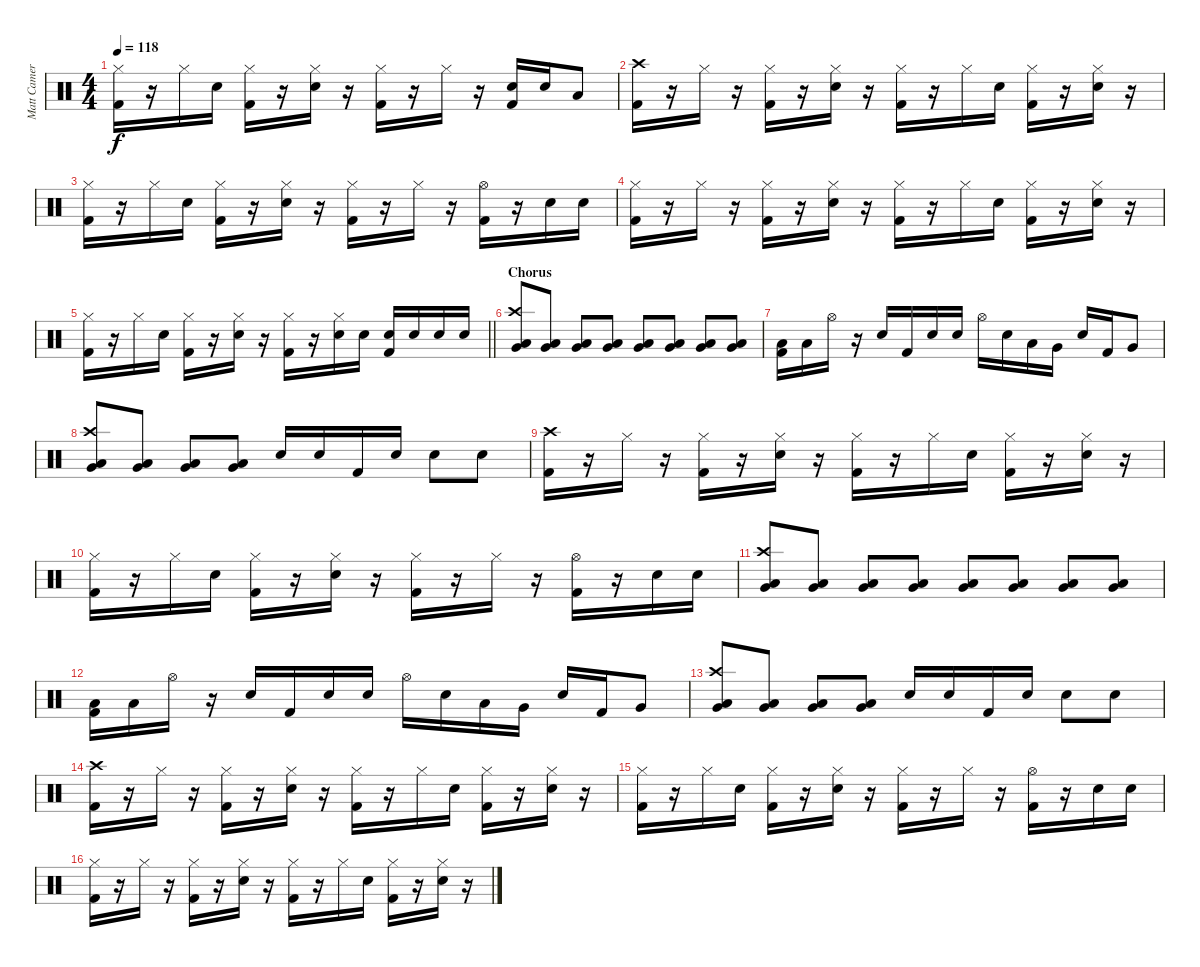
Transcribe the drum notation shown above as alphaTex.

\track ("Matt Cameron" "Matt Camer") {instrument percussion}
\staff {score}
\articulation defaults
\ts (4 4)
\tempo 118
\clef neutral
\ks c
("Hi-Hat (closed)" "Kick (hit) 2").16{dy f} r.16 "Hi-Hat (closed)".16 "Snare (hit) 2".16 ("Hi-Hat (closed)" "Kick (hit) 2").16 r.16 ("Hi-Hat (closed)" "Snare (hit) 2").16 r.16 ("Hi-Hat (closed)" "Kick (hit) 2").16 r.16 "Hi-Hat (closed)".16 r.16 ("Snare (hit) 2" "Kick (hit) 2").16 "Snare (hit) 2".16 "Low Tom (hit)".8 |
("Crash high (hit)" "Kick (hit) 2").16 r.16 "Hi-Hat (closed)".16 r.16 ("Hi-Hat (closed)" "Kick (hit) 2").16 r.16 ("Hi-Hat (closed)" "Snare (hit) 2").16 r.16 ("Hi-Hat (closed)" "Kick (hit) 2").16 r.16 "Hi-Hat (closed)".16 "Snare (hit) 2".16 ("Hi-Hat (closed)" "Kick (hit) 2").16 r.16 ("Hi-Hat (closed)" "Snare (hit) 2").16 r.16 |
("Hi-Hat (closed)" "Kick (hit) 2").16 r.16 "Hi-Hat (closed)".16 "Snare (hit) 2".16 ("Hi-Hat (closed)" "Kick (hit) 2").16 r.16 ("Hi-Hat (closed)" "Snare (hit) 2").16 r.16 ("Hi-Hat (closed)" "Kick (hit) 2").16 r.16 "Hi-Hat (closed)".16 r.16 ("Hi-Hat (open)" "Kick (hit) 2").16 r.16 "Snare (hit) 2".16 "Snare (hit) 2".16 |
("Hi-Hat (closed)" "Kick (hit) 2").16 r.16 "Hi-Hat (closed)".16 r.16 ("Hi-Hat (closed)" "Kick (hit) 2").16 r.16 ("Hi-Hat (closed)" "Snare (hit) 2").16 r.16 ("Hi-Hat (closed)" "Kick (hit) 2").16 r.16 "Hi-Hat (closed)".16 "Snare (hit) 2".16 ("Hi-Hat (closed)" "Kick (hit) 2").16 r.16 ("Hi-Hat (closed)" "Snare (hit) 2").16 r.16 |
\barLineRight lightlight
("Hi-Hat (closed)" "Kick (hit) 2").16 r.16 "Hi-Hat (closed)".16 "Snare (hit) 2".16 ("Hi-Hat (closed)" "Kick (hit) 2").16 r.16 ("Hi-Hat (closed)" "Snare (hit) 2").16 r.16 ("Hi-Hat (closed)" "Kick (hit) 2").16 r.16 ("Hi-Hat (closed)" "Electric Snare (hit)").16 "Electric Snare (hit)".16 ("Snare (hit) 2" "Kick (hit) 2").16 "Snare (hit) 2".16 "Snare (hit) 2".16 "Snare (hit) 2".16 |
\section ("" "Chorus")
("Crash high (hit)" "Very Low Tom (hit)" "Low Tom (hit)").8 ("Very Low Tom (hit)" "Low Tom (hit)").8 ("Very Low Tom (hit)" "Low Tom (hit)").8 ("Very Low Tom (hit)" "Low Tom (hit)").8 ("Very Low Tom (hit)" "Low Tom (hit)").8 ("Very Low Tom (hit)" "Low Tom (hit)").8 ("Very Low Tom (hit)" "Low Tom (hit)").8 ("Very Low Tom (hit)" "Low Tom (hit)").8 |
("Low Tom (hit)" "Kick (hit) 2").16 "Low Floor Tom (hit)".16 "Hi-Hat (open)".16 r.16 "Snare (hit) 2".16 "Kick (hit) 2".16 "Snare (hit) 2".16 "Snare (hit) 2".16 "Hi-Hat (open)".16 "Snare (hit) 2".16 "Low Tom (hit)".16 "Very Low Tom (hit)".16 "Snare (hit) 2".16 "Kick (hit) 2".16 "Very Low Tom (hit)".8 |
("Crash high (hit)" "Very Low Tom (hit)" "Low Tom (hit)").8 ("Very Low Tom (hit)" "Low Tom (hit)").8 ("Very Low Tom (hit)" "Low Tom (hit)").8 ("Very Low Tom (hit)" "Low Tom (hit)").8 "Snare (hit) 2".16 "Snare (hit) 2".16 "Kick (hit) 2".16 "Snare (hit) 2".16 "Snare (hit) 2".8 "Snare (hit) 2".8 |
("Crash high (hit)" "Kick (hit) 2").16 r.16 "Hi-Hat (closed)".16 r.16 ("Hi-Hat (closed)" "Kick (hit) 2").16 r.16 ("Hi-Hat (closed)" "Snare (hit) 2").16 r.16 ("Hi-Hat (closed)" "Kick (hit) 2").16 r.16 "Hi-Hat (closed)".16 "Snare (hit) 2".16 ("Hi-Hat (closed)" "Kick (hit) 2").16 r.16 ("Hi-Hat (closed)" "Snare (hit) 2").16 r.16 |
("Hi-Hat (closed)" "Kick (hit) 2").16 r.16 "Hi-Hat (closed)".16 "Snare (hit) 2".16 ("Hi-Hat (closed)" "Kick (hit) 2").16 r.16 ("Hi-Hat (closed)" "Snare (hit) 2").16 r.16 ("Hi-Hat (closed)" "Kick (hit) 2").16 r.16 "Hi-Hat (closed)".16 r.16 ("Hi-Hat (open)" "Kick (hit) 2").16 r.16 "Snare (hit) 2".16 "Snare (hit) 2".16 |
("Crash high (hit)" "Very Low Tom (hit)" "Low Tom (hit)").8 ("Very Low Tom (hit)" "Low Tom (hit)").8 ("Very Low Tom (hit)" "Low Tom (hit)").8 ("Very Low Tom (hit)" "Low Tom (hit)").8 ("Very Low Tom (hit)" "Low Tom (hit)").8 ("Very Low Tom (hit)" "Low Tom (hit)").8 ("Very Low Tom (hit)" "Low Tom (hit)").8 ("Very Low Tom (hit)" "Low Tom (hit)").8 |
("Low Tom (hit)" "Kick (hit) 2").16 "Low Floor Tom (hit)".16 "Hi-Hat (open)".16 r.16 "Snare (hit) 2".16 "Kick (hit) 2".16 "Snare (hit) 2".16 "Snare (hit) 2".16 "Hi-Hat (open)".16 "Snare (hit) 2".16 "Low Tom (hit)".16 "Very Low Tom (hit)".16 "Snare (hit) 2".16 "Kick (hit) 2".16 "Very Low Tom (hit)".8 |
("Crash high (hit)" "Very Low Tom (hit)" "Low Tom (hit)").8 ("Very Low Tom (hit)" "Low Tom (hit)").8 ("Very Low Tom (hit)" "Low Tom (hit)").8 ("Very Low Tom (hit)" "Low Tom (hit)").8 "Snare (hit) 2".16 "Snare (hit) 2".16 "Kick (hit) 2".16 "Snare (hit) 2".16 "Snare (hit) 2".8 "Snare (hit) 2".8 |
("Crash high (hit)" "Kick (hit) 2").16 r.16 "Hi-Hat (closed)".16 r.16 ("Hi-Hat (closed)" "Kick (hit) 2").16 r.16 ("Hi-Hat (closed)" "Snare (hit) 2").16 r.16 ("Hi-Hat (closed)" "Kick (hit) 2").16 r.16 "Hi-Hat (closed)".16 "Snare (hit) 2".16 ("Hi-Hat (closed)" "Kick (hit) 2").16 r.16 ("Hi-Hat (closed)" "Snare (hit) 2").16 r.16 |
("Hi-Hat (closed)" "Kick (hit) 2").16 r.16 "Hi-Hat (closed)".16 "Snare (hit) 2".16 ("Hi-Hat (closed)" "Kick (hit) 2").16 r.16 ("Hi-Hat (closed)" "Snare (hit) 2").16 r.16 ("Hi-Hat (closed)" "Kick (hit) 2").16 r.16 "Hi-Hat (closed)".16 r.16 ("Hi-Hat (open)" "Kick (hit) 2").16 r.16 "Snare (hit) 2".16 "Snare (hit) 2".16 |
("Hi-Hat (closed)" "Kick (hit) 2").16 r.16 "Hi-Hat (closed)".16 r.16 ("Hi-Hat (closed)" "Kick (hit) 2").16 r.16 ("Hi-Hat (closed)" "Snare (hit) 2").16 r.16 ("Hi-Hat (closed)" "Kick (hit) 2").16 r.16 "Hi-Hat (closed)".16 "Snare (hit) 2".16 ("Hi-Hat (closed)" "Kick (hit) 2").16 r.16 ("Hi-Hat (closed)" "Snare (hit) 2").16 r.16
